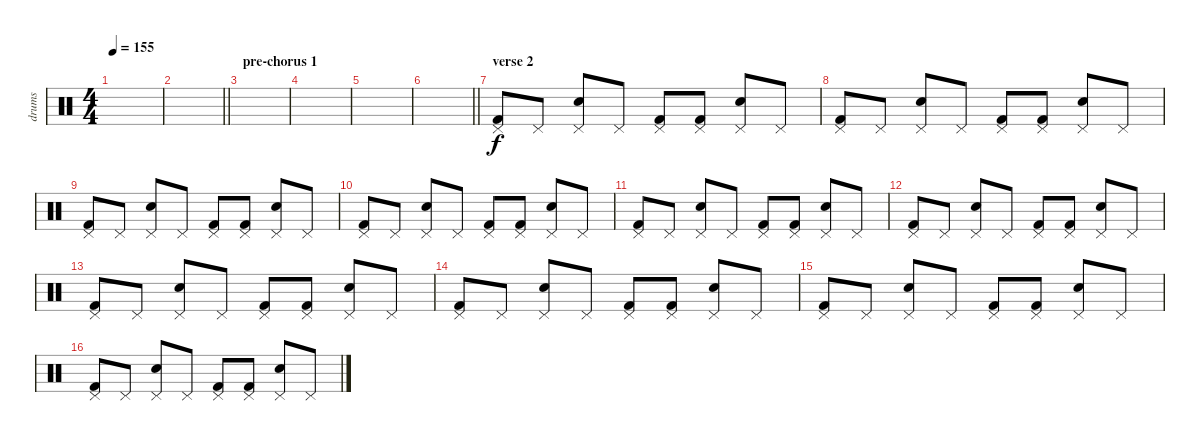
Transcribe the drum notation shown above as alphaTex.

\track ("drums" "drums") {instrument percussion}
\staff {score}
\articulation defaults
\ts (4 4)
\tempo 155
\clef neutral
\ks c
|
\barLineRight lightlight
|
\section ("" "pre-chorus 1")
|
|
|
\barLineRight lightlight
|
\section ("" "verse 2")
("Kick (hit) 2" "Pedal Hi-Hat (hit)").8 "Pedal Hi-Hat (hit)".8 ("Electric Snare (hit)" "Pedal Hi-Hat (hit)").8 "Pedal Hi-Hat (hit)".8 ("Kick (hit) 2" "Pedal Hi-Hat (hit)").8 ("Kick (hit) 2" "Pedal Hi-Hat (hit)").8 ("Electric Snare (hit)" "Pedal Hi-Hat (hit)").8 "Pedal Hi-Hat (hit)".8 |
("Kick (hit) 2" "Pedal Hi-Hat (hit)").8 "Pedal Hi-Hat (hit)".8 ("Electric Snare (hit)" "Pedal Hi-Hat (hit)").8 "Pedal Hi-Hat (hit)".8 ("Kick (hit) 2" "Pedal Hi-Hat (hit)").8 ("Kick (hit) 2" "Pedal Hi-Hat (hit)").8 ("Electric Snare (hit)" "Pedal Hi-Hat (hit)").8 "Pedal Hi-Hat (hit)".8 |
("Kick (hit) 2" "Pedal Hi-Hat (hit)").8 "Pedal Hi-Hat (hit)".8 ("Electric Snare (hit)" "Pedal Hi-Hat (hit)").8 "Pedal Hi-Hat (hit)".8 ("Kick (hit) 2" "Pedal Hi-Hat (hit)").8 ("Kick (hit) 2" "Pedal Hi-Hat (hit)").8 ("Electric Snare (hit)" "Pedal Hi-Hat (hit)").8 "Pedal Hi-Hat (hit)".8 |
("Kick (hit) 2" "Pedal Hi-Hat (hit)").8 "Pedal Hi-Hat (hit)".8 ("Electric Snare (hit)" "Pedal Hi-Hat (hit)").8 "Pedal Hi-Hat (hit)".8 ("Kick (hit) 2" "Pedal Hi-Hat (hit)").8 ("Kick (hit) 2" "Pedal Hi-Hat (hit)").8 ("Electric Snare (hit)" "Pedal Hi-Hat (hit)").8 "Pedal Hi-Hat (hit)".8 |
("Kick (hit) 2" "Pedal Hi-Hat (hit)").8 "Pedal Hi-Hat (hit)".8 ("Electric Snare (hit)" "Pedal Hi-Hat (hit)").8 "Pedal Hi-Hat (hit)".8 ("Kick (hit) 2" "Pedal Hi-Hat (hit)").8 ("Kick (hit) 2" "Pedal Hi-Hat (hit)").8 ("Electric Snare (hit)" "Pedal Hi-Hat (hit)").8 "Pedal Hi-Hat (hit)".8 |
("Kick (hit) 2" "Pedal Hi-Hat (hit)").8 "Pedal Hi-Hat (hit)".8 ("Electric Snare (hit)" "Pedal Hi-Hat (hit)").8 "Pedal Hi-Hat (hit)".8 ("Kick (hit) 2" "Pedal Hi-Hat (hit)").8 ("Kick (hit) 2" "Pedal Hi-Hat (hit)").8 ("Electric Snare (hit)" "Pedal Hi-Hat (hit)").8 "Pedal Hi-Hat (hit)".8 |
("Kick (hit) 2" "Pedal Hi-Hat (hit)").8 "Pedal Hi-Hat (hit)".8 ("Electric Snare (hit)" "Pedal Hi-Hat (hit)").8 "Pedal Hi-Hat (hit)".8 ("Kick (hit) 2" "Pedal Hi-Hat (hit)").8 ("Kick (hit) 2" "Pedal Hi-Hat (hit)").8 ("Electric Snare (hit)" "Pedal Hi-Hat (hit)").8 "Pedal Hi-Hat (hit)".8 |
("Kick (hit) 2" "Pedal Hi-Hat (hit)").8 "Pedal Hi-Hat (hit)".8 ("Electric Snare (hit)" "Pedal Hi-Hat (hit)").8 "Pedal Hi-Hat (hit)".8 ("Kick (hit) 2" "Pedal Hi-Hat (hit)").8 ("Kick (hit) 2" "Pedal Hi-Hat (hit)").8 ("Electric Snare (hit)" "Pedal Hi-Hat (hit)").8 "Pedal Hi-Hat (hit)".8 |
("Kick (hit) 2" "Pedal Hi-Hat (hit)").8 "Pedal Hi-Hat (hit)".8 ("Electric Snare (hit)" "Pedal Hi-Hat (hit)").8 "Pedal Hi-Hat (hit)".8 ("Kick (hit) 2" "Pedal Hi-Hat (hit)").8 ("Kick (hit) 2" "Pedal Hi-Hat (hit)").8 ("Electric Snare (hit)" "Pedal Hi-Hat (hit)").8 "Pedal Hi-Hat (hit)".8 |
("Kick (hit) 2" "Pedal Hi-Hat (hit)").8 "Pedal Hi-Hat (hit)".8 ("Electric Snare (hit)" "Pedal Hi-Hat (hit)").8 "Pedal Hi-Hat (hit)".8 ("Kick (hit) 2" "Pedal Hi-Hat (hit)").8 ("Kick (hit) 2" "Pedal Hi-Hat (hit)").8 ("Electric Snare (hit)" "Pedal Hi-Hat (hit)").8 "Pedal Hi-Hat (hit)".8
